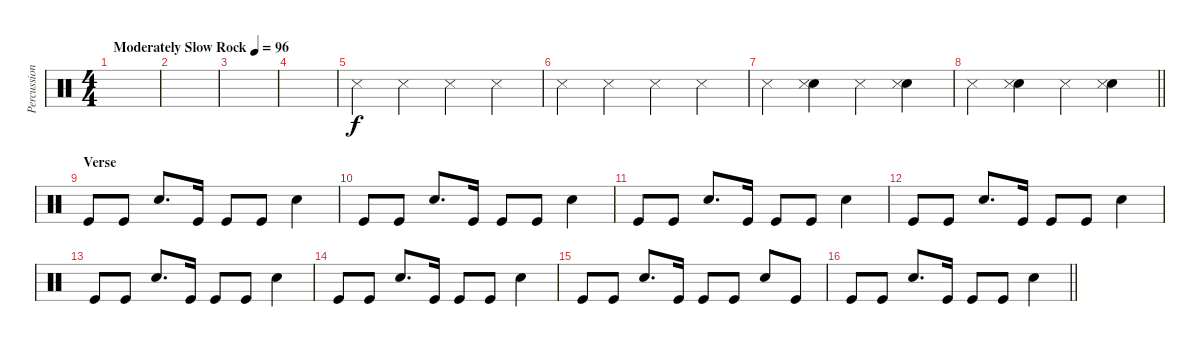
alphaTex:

\track ("Percussion" "Percussion") {instrument percussion}
\staff {score}
\articulation defaults
\ts (4 4)
\tempo (96 "Moderately Slow Rock")
\clef neutral
\ks c
|
|
|
|
"Metronome (hit)".4 "Metronome (hit)".4 "Metronome (hit)".4 "Metronome (hit)".4 |
"Metronome (hit)".4 "Metronome (hit)".4 "Metronome (hit)".4 "Metronome (hit)".4 |
"Metronome (hit)".4 ("Electric Snare (hit)" "Metronome (hit)").4 "Metronome (hit)".4 ("Electric Snare (hit)" "Metronome (hit)").4 |
\barLineRight lightlight "Metronome (hit)".4
("Electric Snare (hit)" "Metronome (hit)").4 "Metronome (hit)".4 ("Electric Snare (hit)" "Metronome (hit)").4 |
\section ("" "Verse")
"Kick (hit)".8 "Kick (hit)".8 "Electric Snare (hit)".8{d} "Kick (hit)".16 "Kick (hit)".8 "Kick (hit)".8 "Electric Snare (hit)".4 |
"Kick (hit)".8 "Kick (hit)".8 "Electric Snare (hit)".8{d} "Kick (hit)".16 "Kick (hit)".8 "Kick (hit)".8 "Electric Snare (hit)".4 |
"Kick (hit)".8 "Kick (hit)".8 "Electric Snare (hit)".8{d} "Kick (hit)".16 "Kick (hit)".8 "Kick (hit)".8 "Electric Snare (hit)".4 |
"Kick (hit)".8 "Kick (hit)".8 "Electric Snare (hit)".8{d} "Kick (hit)".16 "Kick (hit)".8 "Kick (hit)".8 "Electric Snare (hit)".4 |
"Kick (hit)".8 "Kick (hit)".8 "Electric Snare (hit)".8{d} "Kick (hit)".16 "Kick (hit)".8 "Kick (hit)".8 "Electric Snare (hit)".4 |
"Kick (hit)".8 "Kick (hit)".8 "Electric Snare (hit)".8{d} "Kick (hit)".16 "Kick (hit)".8 "Kick (hit)".8 "Electric Snare (hit)".4 |
"Kick (hit)".8 "Kick (hit)".8 "Electric Snare (hit)".8{d} "Kick (hit)".16 "Kick (hit)".8 "Kick (hit)".8 "Electric Snare (hit)".8 "Kick (hit)".8 |
\barLineRight lightlight "Kick (hit)".8 "Kick (hit)".8 "Electric Snare (hit)".8{d} "Kick (hit)".16 "Kick (hit)".8 "Kick (hit)".8 "Electric Snare (hit)".4
